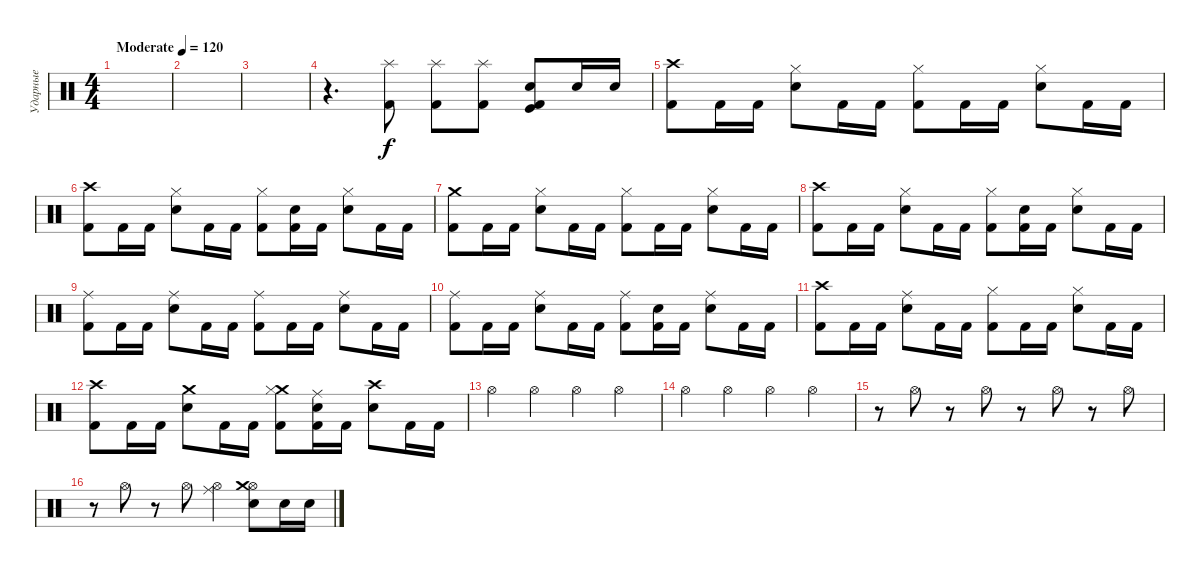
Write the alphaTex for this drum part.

\track ("Ударные" "Ударные") {instrument percussion}
\staff {score}
\articulation defaults
\ts (4 4)
\tempo (120 "Moderate")
\clef neutral
\ks c
|
|
|
r.4{d} ("Splash (hit)" "Kick (hit) 2").8 ("Splash (hit)" "Kick (hit) 2").8 ("Splash (hit)" "Kick (hit) 2").8 ("Electric Snare (hit)" "Kick (hit)" "Kick (hit) 2").8 "Electric Snare (hit)".16 "Electric Snare (hit)".16 |
("Crash high (hit)" "Kick (hit) 2").8 "Kick (hit) 2".16 "Kick (hit) 2".16 ("Hi-Hat (closed)" "Electric Snare (hit)").8 "Kick (hit) 2".16 "Kick (hit) 2".16 ("Hi-Hat (closed)" "Kick (hit) 2").8 "Kick (hit) 2".16 "Kick (hit) 2".16 ("Hi-Hat (closed)" "Electric Snare (hit)").8 "Kick (hit) 2".16 "Kick (hit) 2".16 |
("Crash high (hit)" "Kick (hit) 2").8 "Kick (hit) 2".16 "Kick (hit) 2".16 ("Hi-Hat (closed)" "Electric Snare (hit)").8 "Kick (hit) 2".16 "Kick (hit) 2".16 ("Hi-Hat (closed)" "Kick (hit) 2").8 ("Electric Snare (hit)" "Kick (hit) 2").16 "Kick (hit) 2".16 ("Hi-Hat (closed)" "Electric Snare (hit)").8 "Kick (hit) 2".16 "Kick (hit) 2".16 |
("Crash medium (hit)" "Kick (hit) 2").8 "Kick (hit) 2".16 "Kick (hit) 2".16 ("Hi-Hat (closed)" "Electric Snare (hit)").8 "Kick (hit) 2".16 "Kick (hit) 2".16 ("Hi-Hat (closed)" "Kick (hit) 2").8 "Kick (hit) 2".16 "Kick (hit) 2".16 ("Hi-Hat (closed)" "Electric Snare (hit)").8 "Kick (hit) 2".16 "Kick (hit) 2".16 |
("Crash high (hit)" "Kick (hit) 2").8 "Kick (hit) 2".16 "Kick (hit) 2".16 ("Hi-Hat (closed)" "Electric Snare (hit)").8 "Kick (hit) 2".16 "Kick (hit) 2".16 ("Hi-Hat (closed)" "Kick (hit) 2").8 ("Electric Snare (hit)" "Kick (hit) 2").16 "Kick (hit) 2".16 ("Hi-Hat (closed)" "Electric Snare (hit)").8 "Kick (hit) 2".16 "Kick (hit) 2".16 |
("Ride (middle)" "Kick (hit) 2").8 "Kick (hit) 2".16 "Kick (hit) 2".16 ("Ride (middle)" "Electric Snare (hit)").8 "Kick (hit) 2".16 "Kick (hit) 2".16 ("Ride (middle)" "Kick (hit) 2").8 "Kick (hit) 2".16 "Kick (hit) 2".16 ("Ride (middle)" "Electric Snare (hit)").8 "Kick (hit) 2".16 "Kick (hit) 2".16 |
("Ride (middle)" "Kick (hit) 2").8 "Kick (hit) 2".16 "Kick (hit) 2".16 ("Ride (middle)" "Electric Snare (hit)").8 "Kick (hit) 2".16 "Kick (hit) 2".16 ("Ride (middle)" "Kick (hit) 2").8 ("Electric Snare (hit)" "Kick (hit) 2").16 "Kick (hit) 2".16 ("Ride (middle)" "Electric Snare (hit)").8 "Kick (hit) 2".16 "Kick (hit) 2".16 |
("Crash high (hit)" "Kick (hit) 2").8 "Kick (hit) 2".16 "Kick (hit) 2".16 ("Ride (middle)" "Electric Snare (hit)").8 "Kick (hit) 2".16 "Kick (hit) 2".16 ("Hi-Hat (closed)" "Kick (hit) 2").8 "Kick (hit) 2".16 "Kick (hit) 2".16 ("Hi-Hat (closed)" "Electric Snare (hit)").8 "Kick (hit) 2".16 "Kick (hit) 2".16 |
("Crash high (hit)" "Kick (hit) 2").8 "Kick (hit) 2".16 "Kick (hit) 2".16 ("Crash medium (hit)" "Electric Snare (hit)").8 "Kick (hit) 2".16 "Kick (hit) 2".16 ("Crash medium (hit)" "Hi-Hat (closed)" "Kick (hit) 2").8 ("Ride (middle)" "Electric Snare (hit)" "Kick (hit) 2").16 "Kick (hit) 2".16 ("Crash high (hit)" "Electric Snare (hit)").8 "Kick (hit) 2".16 "Kick (hit) 2".16 |
"Hi-Hat (open)".4 "Hi-Hat (open)".4 "Hi-Hat (open)".4 "Hi-Hat (open)".4 |
"Hi-Hat (open)".4 "Hi-Hat (open)".4 "Hi-Hat (open)".4 "Hi-Hat (open)".4 |
r.8 "Hi-Hat (open)".8 r.8 "Hi-Hat (open)".8 r.8 "Hi-Hat (open)".8 r.8 "Hi-Hat (open)".8 |
r.8 "Hi-Hat (open)".8 r.8 "Hi-Hat (open)".8 ("Hi-Hat (open)" "Ride (middle)").4 ("Hi-Hat (open)" "Electric Snare (hit)" "Crash medium (hit)").8 "Electric Snare (hit)".16 "Electric Snare (hit)".16
